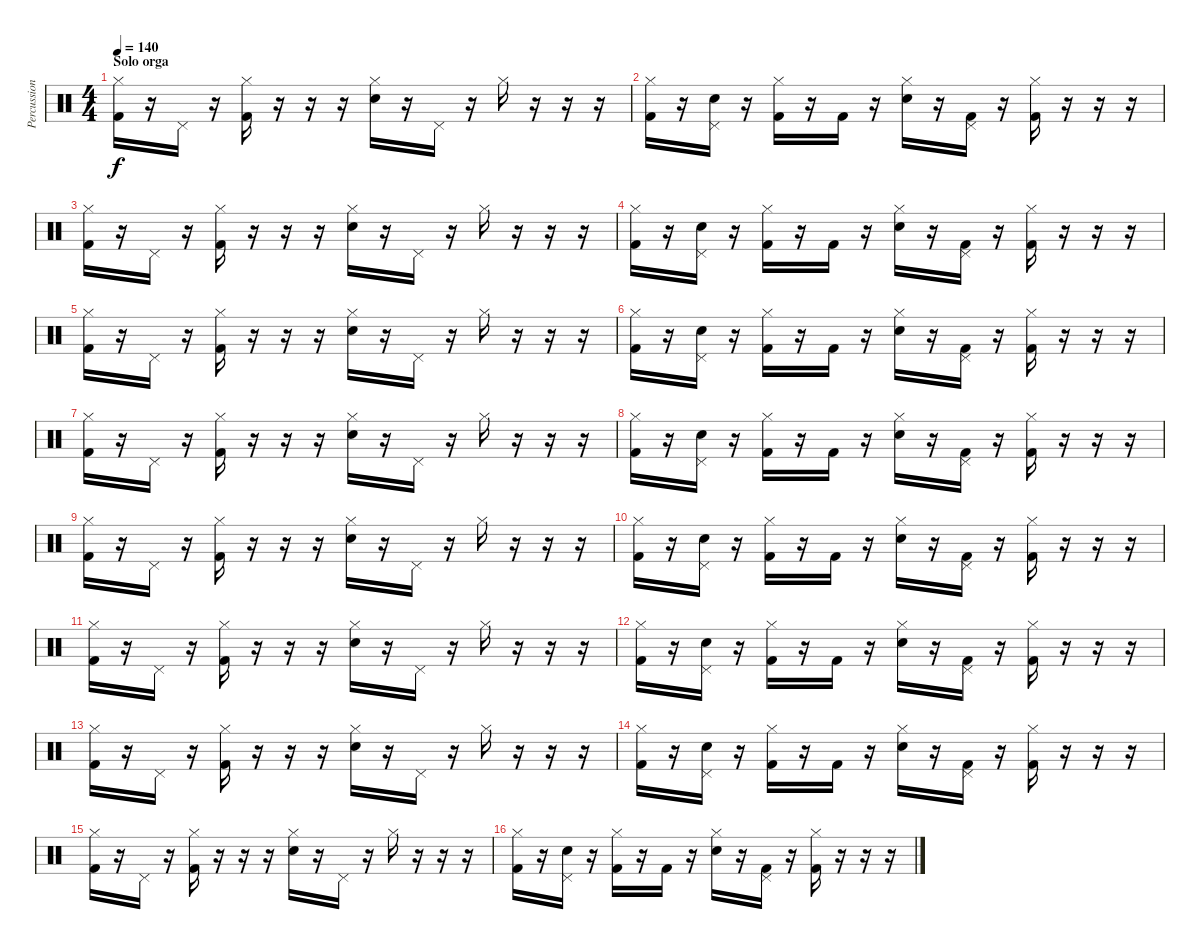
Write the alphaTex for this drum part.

\track ("Percussion" "Percussion") {instrument percussion}
\staff {score}
\articulation defaults
\ts (4 4)
\section ("" "Solo orga")
\tempo 140
\clef neutral
\ks c
("Hi-Hat (closed)" "Kick (hit) 2").16{dy f} r.16 "Pedal Hi-Hat (hit)".16 r.16 ("Hi-Hat (closed)" "Kick (hit) 2").16 r.16 r.16 r.16 ("Hi-Hat (closed)" "Snare (hit) 2").16 r.16 "Pedal Hi-Hat (hit)".16 r.16 "Hi-Hat (closed)".16 r.16 r.16 r.16 |
("Hi-Hat (closed)" "Kick (hit) 2").16 r.16 ("Pedal Hi-Hat (hit)" "Snare (hit) 2").16 r.16 ("Hi-Hat (closed)" "Kick (hit) 2").16 r.16 "Kick (hit) 2".16 r.16 ("Hi-Hat (closed)" "Snare (hit) 2").16 r.16 ("Pedal Hi-Hat (hit)" "Kick (hit) 2").16 r.16 ("Hi-Hat (closed)" "Kick (hit) 2").16 r.16 r.16 r.16 |
("Hi-Hat (closed)" "Kick (hit) 2").16 r.16 "Pedal Hi-Hat (hit)".16 r.16 ("Hi-Hat (closed)" "Kick (hit) 2").16 r.16 r.16 r.16 ("Hi-Hat (closed)" "Snare (hit) 2").16 r.16 "Pedal Hi-Hat (hit)".16 r.16 "Hi-Hat (closed)".16 r.16 r.16 r.16 |
("Hi-Hat (closed)" "Kick (hit) 2").16 r.16 ("Pedal Hi-Hat (hit)" "Snare (hit) 2").16 r.16 ("Hi-Hat (closed)" "Kick (hit) 2").16 r.16 "Kick (hit) 2".16 r.16 ("Hi-Hat (closed)" "Snare (hit) 2").16 r.16 ("Pedal Hi-Hat (hit)" "Kick (hit) 2").16 r.16 ("Hi-Hat (closed)" "Kick (hit) 2").16 r.16 r.16 r.16 |
("Hi-Hat (closed)" "Kick (hit) 2").16 r.16 "Pedal Hi-Hat (hit)".16 r.16 ("Hi-Hat (closed)" "Kick (hit) 2").16 r.16 r.16 r.16 ("Hi-Hat (closed)" "Snare (hit) 2").16 r.16 "Pedal Hi-Hat (hit)".16 r.16 "Hi-Hat (closed)".16 r.16 r.16 r.16 |
("Hi-Hat (closed)" "Kick (hit) 2").16 r.16 ("Pedal Hi-Hat (hit)" "Snare (hit) 2").16 r.16 ("Hi-Hat (closed)" "Kick (hit) 2").16 r.16 "Kick (hit) 2".16 r.16 ("Hi-Hat (closed)" "Snare (hit) 2").16 r.16 ("Pedal Hi-Hat (hit)" "Kick (hit) 2").16 r.16 ("Hi-Hat (closed)" "Kick (hit) 2").16 r.16 r.16 r.16 |
("Hi-Hat (closed)" "Kick (hit) 2").16 r.16 "Pedal Hi-Hat (hit)".16 r.16 ("Hi-Hat (closed)" "Kick (hit) 2").16 r.16 r.16 r.16 ("Hi-Hat (closed)" "Snare (hit) 2").16 r.16 "Pedal Hi-Hat (hit)".16 r.16 "Hi-Hat (closed)".16 r.16 r.16 r.16 |
("Hi-Hat (closed)" "Kick (hit) 2").16 r.16 ("Pedal Hi-Hat (hit)" "Snare (hit) 2").16 r.16 ("Hi-Hat (closed)" "Kick (hit) 2").16 r.16 "Kick (hit) 2".16 r.16 ("Hi-Hat (closed)" "Snare (hit) 2").16 r.16 ("Pedal Hi-Hat (hit)" "Kick (hit) 2").16 r.16 ("Hi-Hat (closed)" "Kick (hit) 2").16 r.16 r.16 r.16 |
("Hi-Hat (closed)" "Kick (hit) 2").16 r.16 "Pedal Hi-Hat (hit)".16 r.16 ("Hi-Hat (closed)" "Kick (hit) 2").16 r.16 r.16 r.16 ("Hi-Hat (closed)" "Snare (hit) 2").16 r.16 "Pedal Hi-Hat (hit)".16 r.16 "Hi-Hat (closed)".16 r.16 r.16 r.16 |
("Hi-Hat (closed)" "Kick (hit) 2").16 r.16 ("Pedal Hi-Hat (hit)" "Snare (hit) 2").16 r.16 ("Hi-Hat (closed)" "Kick (hit) 2").16 r.16 "Kick (hit) 2".16 r.16 ("Hi-Hat (closed)" "Snare (hit) 2").16 r.16 ("Pedal Hi-Hat (hit)" "Kick (hit) 2").16 r.16 ("Hi-Hat (closed)" "Kick (hit) 2").16 r.16 r.16 r.16 |
("Hi-Hat (closed)" "Kick (hit) 2").16 r.16 "Pedal Hi-Hat (hit)".16 r.16 ("Hi-Hat (closed)" "Kick (hit) 2").16 r.16 r.16 r.16 ("Hi-Hat (closed)" "Snare (hit) 2").16 r.16 "Pedal Hi-Hat (hit)".16 r.16 "Hi-Hat (closed)".16 r.16 r.16 r.16 |
("Hi-Hat (closed)" "Kick (hit) 2").16 r.16 ("Pedal Hi-Hat (hit)" "Snare (hit) 2").16 r.16 ("Hi-Hat (closed)" "Kick (hit) 2").16 r.16 "Kick (hit) 2".16 r.16 ("Hi-Hat (closed)" "Snare (hit) 2").16 r.16 ("Pedal Hi-Hat (hit)" "Kick (hit) 2").16 r.16 ("Hi-Hat (closed)" "Kick (hit) 2").16 r.16 r.16 r.16 |
("Hi-Hat (closed)" "Kick (hit) 2").16 r.16 "Pedal Hi-Hat (hit)".16 r.16 ("Hi-Hat (closed)" "Kick (hit) 2").16 r.16 r.16 r.16 ("Hi-Hat (closed)" "Snare (hit) 2").16 r.16 "Pedal Hi-Hat (hit)".16 r.16 "Hi-Hat (closed)".16 r.16 r.16 r.16 |
("Hi-Hat (closed)" "Kick (hit) 2").16 r.16 ("Pedal Hi-Hat (hit)" "Snare (hit) 2").16 r.16 ("Hi-Hat (closed)" "Kick (hit) 2").16 r.16 "Kick (hit) 2".16 r.16 ("Hi-Hat (closed)" "Snare (hit) 2").16 r.16 ("Pedal Hi-Hat (hit)" "Kick (hit) 2").16 r.16 ("Hi-Hat (closed)" "Kick (hit) 2").16 r.16 r.16 r.16 |
("Hi-Hat (closed)" "Kick (hit) 2").16 r.16 "Pedal Hi-Hat (hit)".16 r.16 ("Hi-Hat (closed)" "Kick (hit) 2").16 r.16 r.16 r.16 ("Hi-Hat (closed)" "Snare (hit) 2").16 r.16 "Pedal Hi-Hat (hit)".16 r.16 "Hi-Hat (closed)".16 r.16 r.16 r.16 |
("Hi-Hat (closed)" "Kick (hit) 2").16 r.16 ("Pedal Hi-Hat (hit)" "Snare (hit) 2").16 r.16 ("Hi-Hat (closed)" "Kick (hit) 2").16 r.16 "Kick (hit) 2".16 r.16 ("Hi-Hat (closed)" "Snare (hit) 2").16 r.16 ("Pedal Hi-Hat (hit)" "Kick (hit) 2").16 r.16 ("Hi-Hat (closed)" "Kick (hit) 2").16 r.16 r.16 r.16
